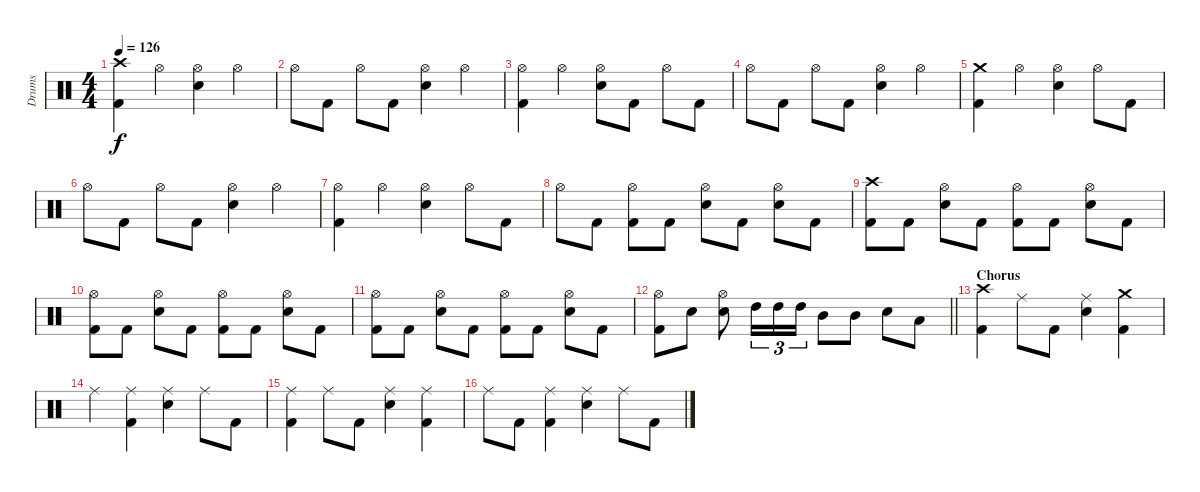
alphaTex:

\track ("Drums" "Drums") {instrument percussion}
\staff {score}
\articulation defaults
\ts (4 4)
\tempo 126
\clef neutral
\ks c
("Crash high (hit)" "Kick (hit) 2").4{dy f} "Hi-Hat (open)".4 ("Hi-Hat (open)" "Snare (hit) 2").4 "Hi-Hat (open)".4 |
"Hi-Hat (open)".8 "Kick (hit) 2".8 "Hi-Hat (open)".8 "Kick (hit) 2".8 ("Hi-Hat (open)" "Snare (hit) 2").4 "Hi-Hat (open)".4 |
("Hi-Hat (open)" "Kick (hit) 2").4 "Hi-Hat (open)".4 ("Hi-Hat (open)" "Snare (hit) 2").8 "Kick (hit) 2".8 "Hi-Hat (open)".8 "Kick (hit) 2".8 |
"Hi-Hat (open)".8 "Kick (hit) 2".8 "Hi-Hat (open)".8 "Kick (hit) 2".8 ("Hi-Hat (open)" "Snare (hit) 2").4 "Hi-Hat (open)".4 |
("Crash medium (hit)" "Kick (hit) 2").4 "Hi-Hat (open)".4 ("Hi-Hat (open)" "Snare (hit) 2").4 "Hi-Hat (open)".8 "Kick (hit) 2".8 |
"Hi-Hat (open)".8 "Kick (hit) 2".8 "Hi-Hat (open)".8 "Kick (hit) 2".8 ("Hi-Hat (open)" "Snare (hit) 2").4 "Hi-Hat (open)".4 |
("Hi-Hat (open)" "Kick (hit) 2").4 "Hi-Hat (open)".4 ("Hi-Hat (open)" "Snare (hit) 2").4 "Hi-Hat (open)".8 "Kick (hit) 2".8 |
"Hi-Hat (open)".8 "Kick (hit) 2".8 ("Hi-Hat (open)" "Kick (hit) 2").8 "Kick (hit) 2".8 ("Hi-Hat (open)" "Snare (hit) 2").8 "Kick (hit) 2".8 ("Hi-Hat (open)" "Snare (hit) 2").8 "Kick (hit) 2".8 |
("Crash high (hit)" "Kick (hit) 2").8 "Kick (hit) 2".8 ("Hi-Hat (open)" "Snare (hit) 2").8 "Kick (hit) 2".8 ("Hi-Hat (open)" "Kick (hit) 2").8 "Kick (hit) 2".8 ("Hi-Hat (open)" "Snare (hit) 2").8 "Kick (hit) 2".8 |
("Hi-Hat (open)" "Kick (hit) 2").8 "Kick (hit) 2".8 ("Hi-Hat (open)" "Snare (hit) 2").8 "Kick (hit) 2".8 ("Hi-Hat (open)" "Kick (hit) 2").8 "Kick (hit) 2".8 ("Hi-Hat (open)" "Snare (hit) 2").8 "Kick (hit) 2".8 |
("Hi-Hat (open)" "Kick (hit) 2").8 "Kick (hit) 2".8 ("Hi-Hat (open)" "Snare (hit) 2").8 "Kick (hit) 2".8 ("Hi-Hat (open)" "Kick (hit) 2").8 "Kick (hit) 2".8 ("Hi-Hat (open)" "Snare (hit) 2").8 "Kick (hit) 2".8 |
\barLineRight lightlight
("Hi-Hat (open)" "Kick (hit) 2").8 "Snare (hit) 2".8 ("Hi-Hat (open)" "Snare (hit) 2").8 "High Tom (hit)".16{tu (3 2)} "High Tom (hit)".16{tu (3 2)} "High Tom (hit)".16{tu (3 2)} "Mid Tom (hit)".8 "Mid Tom (hit)".8 "Snare (hit) 2".8 "Low Tom (hit)".8 |
\section ("" "Chorus")
("Crash high (hit)" "Kick (hit) 2").4 "Ride (middle)".8 "Kick (hit) 2".8 ("Ride (middle)" "Snare (hit) 2").4 ("Crash medium (hit)" "Kick (hit) 2").4 |
"Ride (middle)".4 ("Ride (middle)" "Kick (hit) 2").4 ("Ride (middle)" "Snare (hit) 2").4 "Ride (middle)".8 "Kick (hit) 2".8 |
("Ride (middle)" "Kick (hit) 2").4 "Ride (middle)".8 "Kick (hit) 2".8 ("Ride (middle)" "Snare (hit) 2").4 ("Ride (middle)" "Kick (hit) 2").4 |
"Ride (middle)".8 "Kick (hit) 2".8 ("Ride (middle)" "Kick (hit) 2").4 ("Ride (middle)" "Snare (hit) 2").4 "Ride (middle)".8 "Kick (hit) 2".8
